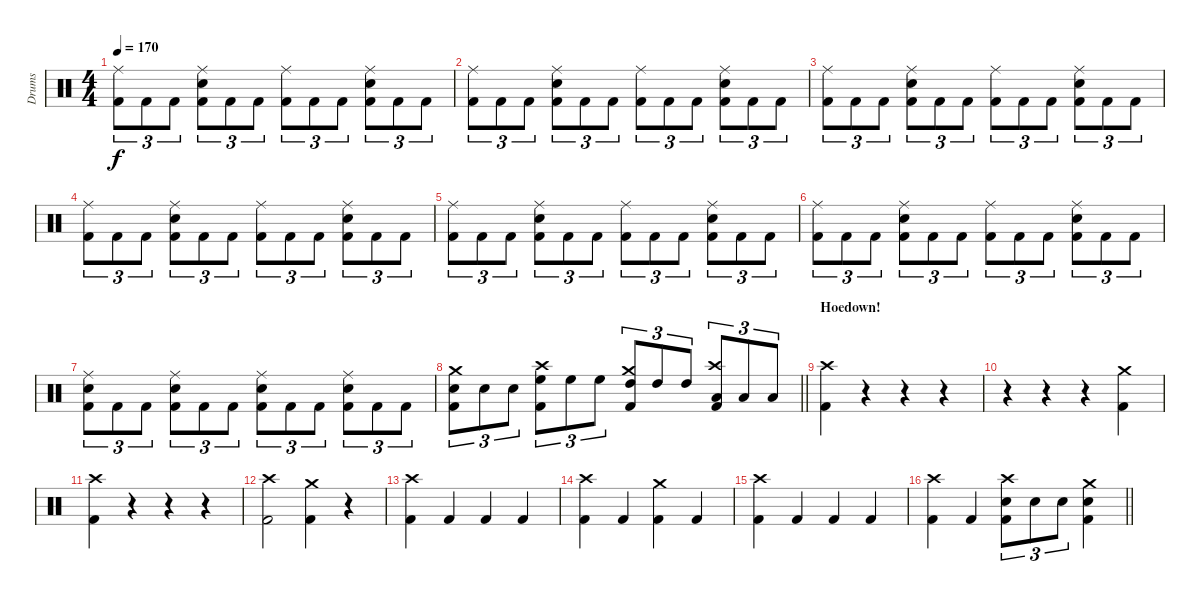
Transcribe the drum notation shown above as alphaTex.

\track ("Drums" "Drums") {instrument percussion}
\staff {score}
\articulation defaults
\ts (4 4)
\tempo 170
\clef neutral
\ks c
("Ride (middle)" "Kick (hit) 2").8{tu (3 2) dy f} "Kick (hit) 2".8{tu (3 2)} "Kick (hit) 2".8{tu (3 2)} ("Ride (middle)" "Snare (hit) 2" "Kick (hit) 2").8{tu (3 2)} "Kick (hit) 2".8{tu (3 2)} "Kick (hit) 2".8{tu (3 2)} ("Ride (middle)" "Kick (hit) 2").8{tu (3 2)} "Kick (hit) 2".8{tu (3 2)} "Kick (hit) 2".8{tu (3 2)} ("Ride (middle)" "Snare (hit) 2" "Kick (hit) 2").8{tu (3 2)} "Kick (hit) 2".8{tu (3 2)} "Kick (hit) 2".8{tu (3 2)} |
("Ride (middle)" "Kick (hit) 2").8{tu (3 2)} "Kick (hit) 2".8{tu (3 2)} "Kick (hit) 2".8{tu (3 2)} ("Ride (middle)" "Snare (hit) 2" "Kick (hit) 2").8{tu (3 2)} "Kick (hit) 2".8{tu (3 2)} "Kick (hit) 2".8{tu (3 2)} ("Ride (middle)" "Kick (hit) 2").8{tu (3 2)} "Kick (hit) 2".8{tu (3 2)} "Kick (hit) 2".8{tu (3 2)} ("Ride (middle)" "Snare (hit) 2" "Kick (hit) 2").8{tu (3 2)} "Kick (hit) 2".8{tu (3 2)} "Kick (hit) 2".8{tu (3 2)} |
("Ride (middle)" "Kick (hit) 2").8{tu (3 2)} "Kick (hit) 2".8{tu (3 2)} "Kick (hit) 2".8{tu (3 2)} ("Ride (middle)" "Snare (hit) 2" "Kick (hit) 2").8{tu (3 2)} "Kick (hit) 2".8{tu (3 2)} "Kick (hit) 2".8{tu (3 2)} ("Ride (middle)" "Kick (hit) 2").8{tu (3 2)} "Kick (hit) 2".8{tu (3 2)} "Kick (hit) 2".8{tu (3 2)} ("Ride (middle)" "Snare (hit) 2" "Kick (hit) 2").8{tu (3 2)} "Kick (hit) 2".8{tu (3 2)} "Kick (hit) 2".8{tu (3 2)} |
("Ride (middle)" "Kick (hit) 2").8{tu (3 2)} "Kick (hit) 2".8{tu (3 2)} "Kick (hit) 2".8{tu (3 2)} ("Ride (middle)" "Snare (hit) 2" "Kick (hit) 2").8{tu (3 2)} "Kick (hit) 2".8{tu (3 2)} "Kick (hit) 2".8{tu (3 2)} ("Ride (middle)" "Kick (hit) 2").8{tu (3 2)} "Kick (hit) 2".8{tu (3 2)} "Kick (hit) 2".8{tu (3 2)} ("Ride (middle)" "Snare (hit) 2" "Kick (hit) 2").8{tu (3 2)} "Kick (hit) 2".8{tu (3 2)} "Kick (hit) 2".8{tu (3 2)} |
("Ride (middle)" "Kick (hit) 2").8{tu (3 2)} "Kick (hit) 2".8{tu (3 2)} "Kick (hit) 2".8{tu (3 2)} ("Ride (middle)" "Snare (hit) 2" "Kick (hit) 2").8{tu (3 2)} "Kick (hit) 2".8{tu (3 2)} "Kick (hit) 2".8{tu (3 2)} ("Ride (middle)" "Kick (hit) 2").8{tu (3 2)} "Kick (hit) 2".8{tu (3 2)} "Kick (hit) 2".8{tu (3 2)} ("Ride (middle)" "Snare (hit) 2" "Kick (hit) 2").8{tu (3 2)} "Kick (hit) 2".8{tu (3 2)} "Kick (hit) 2".8{tu (3 2)} |
("Ride (middle)" "Kick (hit) 2").8{tu (3 2)} "Kick (hit) 2".8{tu (3 2)} "Kick (hit) 2".8{tu (3 2)} ("Ride (middle)" "Snare (hit) 2" "Kick (hit) 2").8{tu (3 2)} "Kick (hit) 2".8{tu (3 2)} "Kick (hit) 2".8{tu (3 2)} ("Ride (middle)" "Kick (hit) 2").8{tu (3 2)} "Kick (hit) 2".8{tu (3 2)} "Kick (hit) 2".8{tu (3 2)} ("Ride (middle)" "Snare (hit) 2" "Kick (hit) 2").8{tu (3 2)} "Kick (hit) 2".8{tu (3 2)} "Kick (hit) 2".8{tu (3 2)} |
("Ride (middle)" "Snare (hit) 2" "Kick (hit) 2").8{tu (3 2)} "Kick (hit) 2".8{tu (3 2)} "Kick (hit) 2".8{tu (3 2)} ("Ride (middle)" "Snare (hit) 2" "Kick (hit) 2").8{tu (3 2)} "Kick (hit) 2".8{tu (3 2)} "Kick (hit) 2".8{tu (3 2)} ("Ride (middle)" "Snare (hit) 2" "Kick (hit) 2").8{tu (3 2)} "Kick (hit) 2".8{tu (3 2)} "Kick (hit) 2".8{tu (3 2)} ("Ride (middle)" "Snare (hit) 2" "Kick (hit) 2").8{tu (3 2)} "Kick (hit) 2".8{tu (3 2)} "Kick (hit) 2".8{tu (3 2)} |
\barLineRight lightlight
("Crash medium (hit)" "Snare (hit) 2" "Kick (hit) 2").8{tu (3 2)} "Snare (hit) 2".8{tu (3 2)} "Snare (hit) 2".8{tu (3 2)} ("Crash high (hit)" "High Floor Tom (hit)" "Kick (hit) 2").8{tu (3 2)} "High Floor Tom (hit)".8{tu (3 2)} "High Floor Tom (hit)".8{tu (3 2)} ("Crash medium (hit)" "High Tom (hit)" "Kick (hit) 2").8{tu (3 2)} "High Tom (hit)".8{tu (3 2)} "High Tom (hit)".8{tu (3 2)} ("Crash high (hit)" "Low Tom (hit)" "Kick (hit) 2").8{tu (3 2)} "Low Tom (hit)".8{tu (3 2)} "Low Tom (hit)".8{tu (3 2)} |
\section ("" "Hoedown!")
("Crash high (hit)" "Kick (hit) 2").4 r.4 r.4 r.4 |
r.4 r.4 r.4 ("Crash medium (hit)" "Kick (hit) 2").4 |
("Crash high (hit)" "Kick (hit) 2").4 r.4 r.4 r.4 |
("Crash high (hit)" "Kick (hit) 2").2 ("Crash medium (hit)" "Kick (hit) 2").4 r.4 |
("Crash high (hit)" "Kick (hit) 2").4 "Kick (hit) 2".4 "Kick (hit) 2".4 "Kick (hit) 2".4 |
("Crash high (hit)" "Kick (hit) 2").4 "Kick (hit) 2".4 ("Crash medium (hit)" "Kick (hit) 2").4 "Kick (hit) 2".4 |
("Crash high (hit)" "Kick (hit) 2").4 "Kick (hit) 2".4 "Kick (hit) 2".4 "Kick (hit) 2".4 |
\barLineRight lightlight
("Crash high (hit)" "Kick (hit) 2").4 "Kick (hit) 2".4 ("Crash high (hit)" "Snare (hit) 2" "Kick (hit) 2").8{tu (3 2)} "Snare (hit) 2".8{tu (3 2)} "Snare (hit) 2".8{tu (3 2)} ("Crash medium (hit)" "Snare (hit) 2" "Kick (hit) 2").4
